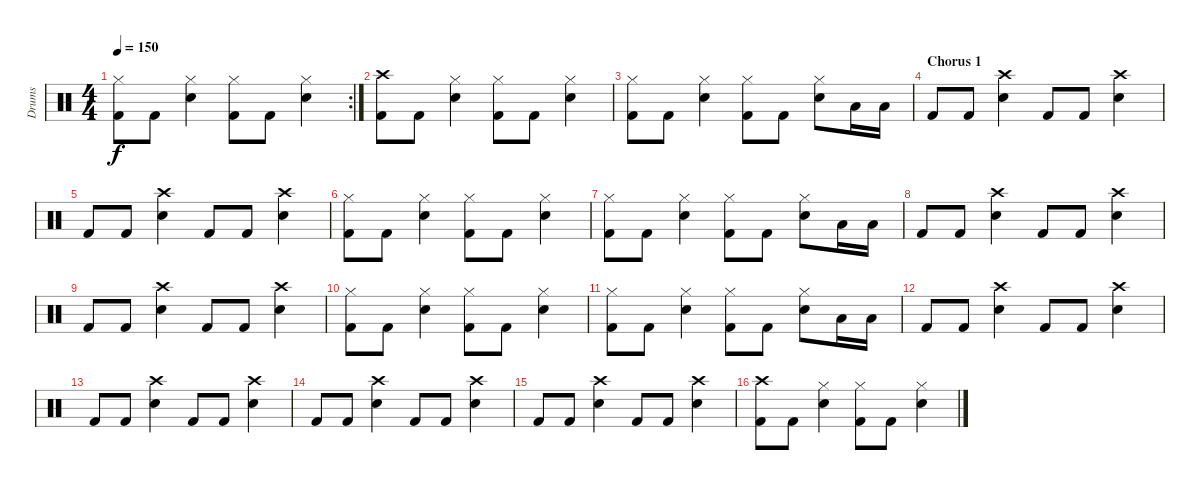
\track ("Drums" "Drums") {instrument percussion}
\staff {score}
\articulation defaults
\rc 2
\ts (4 4)
\tempo 150
\clef neutral
\ks c
("Hi-Hat (closed)" "Kick (hit) 2").8{dy f} "Kick (hit) 2".8 ("Hi-Hat (closed)" "Electric Snare (hit)").4 ("Hi-Hat (closed)" "Kick (hit) 2").8 "Kick (hit) 2".8 ("Hi-Hat (closed)" "Electric Snare (hit)").4 |
("Crash high (hit)" "Kick (hit) 2").8 "Kick (hit) 2".8 ("Hi-Hat (closed)" "Electric Snare (hit)").4 ("Hi-Hat (closed)" "Kick (hit) 2").8 "Kick (hit) 2".8 ("Hi-Hat (closed)" "Electric Snare (hit)").4 |
("Hi-Hat (closed)" "Kick (hit) 2").8 "Kick (hit) 2".8 ("Hi-Hat (closed)" "Electric Snare (hit)").4 ("Hi-Hat (closed)" "Kick (hit) 2").8 "Kick (hit) 2".8 ("Hi-Hat (closed)" "Electric Snare (hit)").8 "Low Floor Tom (hit)".16 "Low Floor Tom (hit)".16 |
\section ("" "Chorus 1")
"Kick (hit) 2".8 "Kick (hit) 2".8 ("Crash high (hit)" "Electric Snare (hit)").4 "Kick (hit) 2".8 "Kick (hit) 2".8 ("Crash high (hit)" "Electric Snare (hit)").4 |
"Kick (hit) 2".8 "Kick (hit) 2".8 ("Crash high (hit)" "Electric Snare (hit)").4 "Kick (hit) 2".8 "Kick (hit) 2".8 ("Crash high (hit)" "Electric Snare (hit)").4 |
("Hi-Hat (closed)" "Kick (hit) 2").8 "Kick (hit) 2".8 ("Hi-Hat (closed)" "Electric Snare (hit)").4 ("Hi-Hat (closed)" "Kick (hit) 2").8 "Kick (hit) 2".8 ("Hi-Hat (closed)" "Electric Snare (hit)").4 |
("Hi-Hat (closed)" "Kick (hit) 2").8 "Kick (hit) 2".8 ("Hi-Hat (closed)" "Electric Snare (hit)").4 ("Hi-Hat (closed)" "Kick (hit) 2").8 "Kick (hit) 2".8 ("Hi-Hat (closed)" "Electric Snare (hit)").8 "Low Floor Tom (hit)".16 "Low Floor Tom (hit)".16 |
"Kick (hit) 2".8 "Kick (hit) 2".8 ("Crash high (hit)" "Electric Snare (hit)").4 "Kick (hit) 2".8 "Kick (hit) 2".8 ("Crash high (hit)" "Electric Snare (hit)").4 |
"Kick (hit) 2".8 "Kick (hit) 2".8 ("Crash high (hit)" "Electric Snare (hit)").4 "Kick (hit) 2".8 "Kick (hit) 2".8 ("Crash high (hit)" "Electric Snare (hit)").4 |
("Hi-Hat (closed)" "Kick (hit) 2").8 "Kick (hit) 2".8 ("Hi-Hat (closed)" "Electric Snare (hit)").4 ("Hi-Hat (closed)" "Kick (hit) 2").8 "Kick (hit) 2".8 ("Hi-Hat (closed)" "Electric Snare (hit)").4 |
("Hi-Hat (closed)" "Kick (hit) 2").8 "Kick (hit) 2".8 ("Hi-Hat (closed)" "Electric Snare (hit)").4 ("Hi-Hat (closed)" "Kick (hit) 2").8 "Kick (hit) 2".8 ("Hi-Hat (closed)" "Electric Snare (hit)").8 "Low Floor Tom (hit)".16 "Low Floor Tom (hit)".16 |
"Kick (hit) 2".8 "Kick (hit) 2".8 ("Crash high (hit)" "Electric Snare (hit)").4 "Kick (hit) 2".8 "Kick (hit) 2".8 ("Crash high (hit)" "Electric Snare (hit)").4 |
"Kick (hit) 2".8 "Kick (hit) 2".8 ("Crash high (hit)" "Electric Snare (hit)").4 "Kick (hit) 2".8 "Kick (hit) 2".8 ("Crash high (hit)" "Electric Snare (hit)").4 |
"Kick (hit) 2".8 "Kick (hit) 2".8 ("Crash high (hit)" "Electric Snare (hit)").4 "Kick (hit) 2".8 "Kick (hit) 2".8 ("Crash high (hit)" "Electric Snare (hit)").4 |
"Kick (hit) 2".8 "Kick (hit) 2".8 ("Crash high (hit)" "Electric Snare (hit)").4 "Kick (hit) 2".8 "Kick (hit) 2".8 ("Crash high (hit)" "Electric Snare (hit)").4 |
("Crash high (hit)" "Kick (hit) 2").8 "Kick (hit) 2".8 ("Hi-Hat (closed)" "Electric Snare (hit)").4 ("Hi-Hat (closed)" "Kick (hit) 2").8 "Kick (hit) 2".8 ("Hi-Hat (closed)" "Electric Snare (hit)").4
